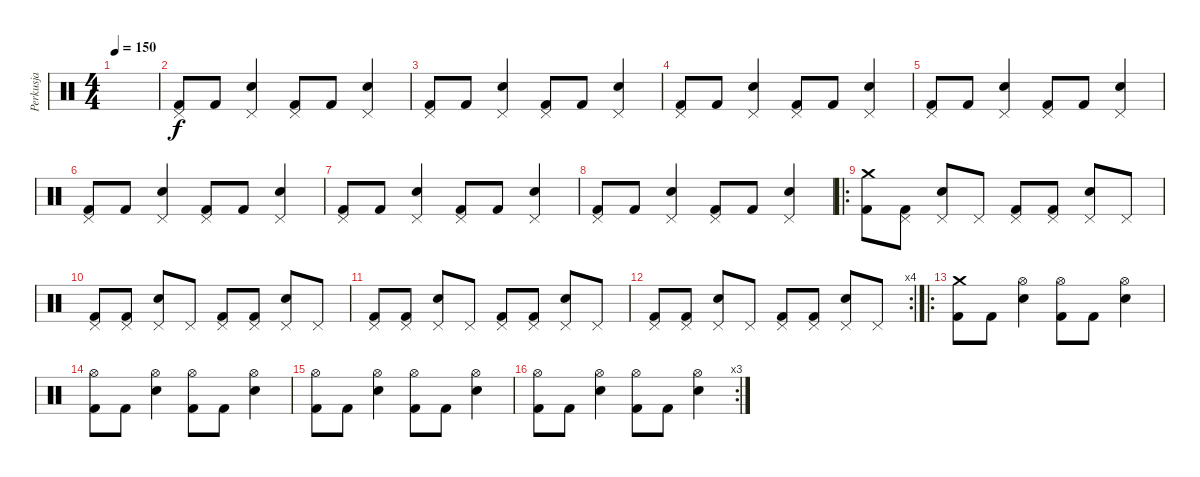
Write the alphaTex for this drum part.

\track ("Perkusja" "Perkusja") {instrument percussion}
\staff {score}
\articulation defaults
\ts (4 4)
\tempo 150
\clef neutral
\ks c
|
("Pedal Hi-Hat (hit)" "Kick (hit) 2").8 "Kick (hit) 2".8 ("Pedal Hi-Hat (hit)" "Snare (hit) 2").4 ("Pedal Hi-Hat (hit)" "Kick (hit) 2").8 "Kick (hit) 2".8 ("Pedal Hi-Hat (hit)" "Snare (hit) 2").4 |
("Pedal Hi-Hat (hit)" "Kick (hit) 2").8 "Kick (hit) 2".8 ("Pedal Hi-Hat (hit)" "Snare (hit) 2").4 ("Pedal Hi-Hat (hit)" "Kick (hit) 2").8 "Kick (hit) 2".8 ("Pedal Hi-Hat (hit)" "Snare (hit) 2").4 |
("Pedal Hi-Hat (hit)" "Kick (hit) 2").8 "Kick (hit) 2".8 ("Pedal Hi-Hat (hit)" "Snare (hit) 2").4 ("Pedal Hi-Hat (hit)" "Kick (hit) 2").8 "Kick (hit) 2".8 ("Pedal Hi-Hat (hit)" "Snare (hit) 2").4 |
("Pedal Hi-Hat (hit)" "Kick (hit) 2").8 "Kick (hit) 2".8 ("Pedal Hi-Hat (hit)" "Snare (hit) 2").4 ("Pedal Hi-Hat (hit)" "Kick (hit) 2").8 "Kick (hit) 2".8 ("Pedal Hi-Hat (hit)" "Snare (hit) 2").4 |
("Pedal Hi-Hat (hit)" "Kick (hit) 2").8 "Kick (hit) 2".8 ("Pedal Hi-Hat (hit)" "Snare (hit) 2").4 ("Pedal Hi-Hat (hit)" "Kick (hit) 2").8 "Kick (hit) 2".8 ("Pedal Hi-Hat (hit)" "Snare (hit) 2").4 |
("Pedal Hi-Hat (hit)" "Kick (hit) 2").8 "Kick (hit) 2".8 ("Pedal Hi-Hat (hit)" "Snare (hit) 2").4 ("Pedal Hi-Hat (hit)" "Kick (hit) 2").8 "Kick (hit) 2".8 ("Pedal Hi-Hat (hit)" "Snare (hit) 2").4 |
("Pedal Hi-Hat (hit)" "Kick (hit) 2").8 "Kick (hit) 2".8 ("Pedal Hi-Hat (hit)" "Snare (hit) 2").4 ("Pedal Hi-Hat (hit)" "Kick (hit) 2").8 "Kick (hit) 2".8 ("Pedal Hi-Hat (hit)" "Snare (hit) 2").4 |
\ro
("Crash medium (hit)" "Kick (hit) 2").8 ("Pedal Hi-Hat (hit)" "Kick (hit) 2").8 ("Pedal Hi-Hat (hit)" "Snare (hit) 2").8 "Pedal Hi-Hat (hit)".8 ("Pedal Hi-Hat (hit)" "Kick (hit) 2").8 ("Pedal Hi-Hat (hit)" "Kick (hit) 2").8 ("Pedal Hi-Hat (hit)" "Snare (hit) 2").8 "Pedal Hi-Hat (hit)".8 |
("Pedal Hi-Hat (hit)" "Kick (hit) 2").8 ("Pedal Hi-Hat (hit)" "Kick (hit) 2").8 ("Pedal Hi-Hat (hit)" "Snare (hit) 2").8 "Pedal Hi-Hat (hit)".8 ("Pedal Hi-Hat (hit)" "Kick (hit) 2").8 ("Pedal Hi-Hat (hit)" "Kick (hit) 2").8 ("Pedal Hi-Hat (hit)" "Snare (hit) 2").8 "Pedal Hi-Hat (hit)".8 |
("Pedal Hi-Hat (hit)" "Kick (hit) 2").8 ("Pedal Hi-Hat (hit)" "Kick (hit) 2").8 ("Pedal Hi-Hat (hit)" "Snare (hit) 2").8 "Pedal Hi-Hat (hit)".8 ("Pedal Hi-Hat (hit)" "Kick (hit) 2").8 ("Pedal Hi-Hat (hit)" "Kick (hit) 2").8 ("Pedal Hi-Hat (hit)" "Snare (hit) 2").8 "Pedal Hi-Hat (hit)".8 |
\rc 4
("Pedal Hi-Hat (hit)" "Kick (hit) 2").8 ("Pedal Hi-Hat (hit)" "Kick (hit) 2").8 ("Pedal Hi-Hat (hit)" "Snare (hit) 2").8 "Pedal Hi-Hat (hit)".8 ("Pedal Hi-Hat (hit)" "Kick (hit) 2").8 ("Pedal Hi-Hat (hit)" "Kick (hit) 2").8 ("Pedal Hi-Hat (hit)" "Snare (hit) 2").8 "Pedal Hi-Hat (hit)".8 |
\ro
("Crash medium (hit)" "Kick (hit) 2").8 "Kick (hit) 2".8 ("Hi-Hat (open)" "Snare (hit) 2").4 ("Hi-Hat (open)" "Kick (hit) 2").8 "Kick (hit) 2".8 ("Hi-Hat (open)" "Snare (hit) 2").4 |
("Hi-Hat (open)" "Kick (hit) 2").8 "Kick (hit) 2".8 ("Hi-Hat (open)" "Snare (hit) 2").4 ("Hi-Hat (open)" "Kick (hit) 2").8 "Kick (hit) 2".8 ("Hi-Hat (open)" "Snare (hit) 2").4 |
("Hi-Hat (open)" "Kick (hit) 2").8 "Kick (hit) 2".8 ("Hi-Hat (open)" "Snare (hit) 2").4 ("Hi-Hat (open)" "Kick (hit) 2").8 "Kick (hit) 2".8 ("Hi-Hat (open)" "Snare (hit) 2").4 |
\rc 3
("Hi-Hat (open)" "Kick (hit) 2").8 "Kick (hit) 2".8 ("Hi-Hat (open)" "Snare (hit) 2").4 ("Hi-Hat (open)" "Kick (hit) 2").8 "Kick (hit) 2".8 ("Hi-Hat (open)" "Snare (hit) 2").4
